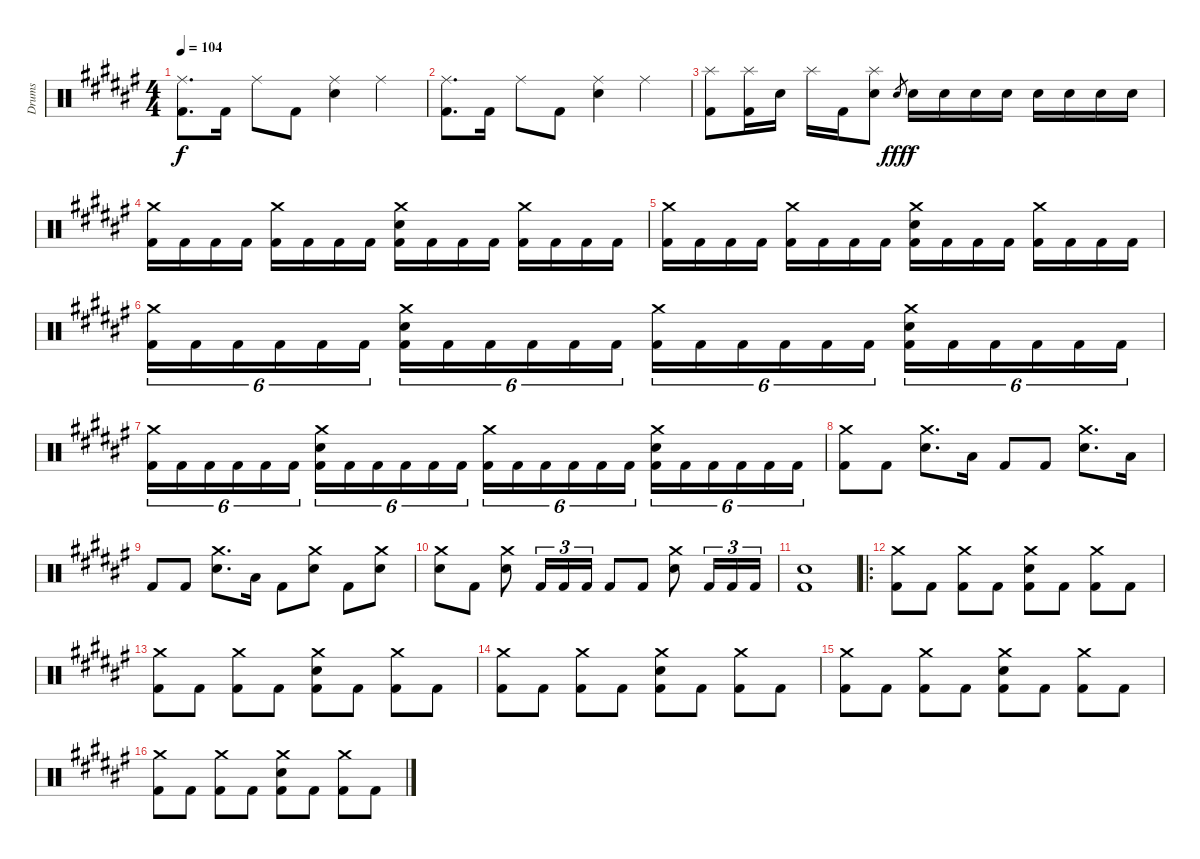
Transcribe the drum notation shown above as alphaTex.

\track ("Drums" "Drums") {instrument percussion}
\staff {score}
\articulation defaults
\ts (4 4)
\tempo 104
\clef neutral
\ks f#
("Ride (middle)" "Kick (hit) 2").8{d dy f} "Kick (hit) 2".16 "Ride (middle)".8 "Kick (hit) 2".8 ("Ride (middle)" "Snare (hit) 2").4 "Ride (middle)".4 |
("Ride (middle)" "Kick (hit) 2").8{d} "Kick (hit) 2".16 "Ride (middle)".8 "Kick (hit) 2".8 ("Ride (middle)" "Snare (hit) 2").4 "Ride (middle)".4 |
("Splash (hit)" "Kick (hit) 2").8 ("Splash (hit)" "Kick (hit) 2").16 "Snare (hit) 2".16 "Splash (hit)".16 "Kick (hit) 2".16 ("Splash (hit)" "Snare (hit) 2").8 "Snare (hit) 2".8{gr dy fff} "Snare (hit) 2".16{dy f} "Snare (hit) 2".16 "Snare (hit) 2".16 "Snare (hit) 2".16 "Snare (hit) 2".16 "Snare (hit) 2".16 "Snare (hit) 2".16 "Snare (hit) 2".16 |
("Crash medium (hit)" "Kick (hit) 2").16 "Kick (hit) 2".16 "Kick (hit) 2".16 "Kick (hit) 2".16 ("Crash medium (hit)" "Kick (hit) 2").16 "Kick (hit) 2".16 "Kick (hit) 2".16 "Kick (hit) 2".16 ("Crash medium (hit)" "Snare (hit) 2" "Kick (hit) 2").16 "Kick (hit) 2".16 "Kick (hit) 2".16 "Kick (hit) 2".16 ("Crash medium (hit)" "Kick (hit) 2").16 "Kick (hit) 2".16 "Kick (hit) 2".16 "Kick (hit) 2".16 |
("Crash medium (hit)" "Kick (hit) 2").16 "Kick (hit) 2".16 "Kick (hit) 2".16 "Kick (hit) 2".16 ("Crash medium (hit)" "Kick (hit) 2").16 "Kick (hit) 2".16 "Kick (hit) 2".16 "Kick (hit) 2".16 ("Crash medium (hit)" "Snare (hit) 2" "Kick (hit) 2").16 "Kick (hit) 2".16 "Kick (hit) 2".16 "Kick (hit) 2".16 ("Crash medium (hit)" "Kick (hit) 2").16 "Kick (hit) 2".16 "Kick (hit) 2".16 "Kick (hit) 2".16 |
("Crash medium (hit)" "Kick (hit) 2").16{tu (6 4)} "Kick (hit) 2".16{tu (6 4)} "Kick (hit) 2".16{tu (6 4)} "Kick (hit) 2".16{tu (6 4)} "Kick (hit) 2".16{tu (6 4)} "Kick (hit) 2".16{tu (6 4)} ("Crash medium (hit)" "Snare (hit) 2" "Kick (hit) 2").16{tu (6 4)} "Kick (hit) 2".16{tu (6 4)} "Kick (hit) 2".16{tu (6 4)} "Kick (hit) 2".16{tu (6 4)} "Kick (hit) 2".16{tu (6 4)} "Kick (hit) 2".16{tu (6 4)} ("Crash medium (hit)" "Kick (hit) 2").16{tu (6 4)} "Kick (hit) 2".16{tu (6 4)} "Kick (hit) 2".16{tu (6 4)} "Kick (hit) 2".16{tu (6 4)} "Kick (hit) 2".16{tu (6 4)} "Kick (hit) 2".16{tu (6 4)} ("Crash medium (hit)" "Snare (hit) 2" "Kick (hit) 2").16{tu (6 4)} "Kick (hit) 2".16{tu (6 4)} "Kick (hit) 2".16{tu (6 4)} "Kick (hit) 2".16{tu (6 4)} "Kick (hit) 2".16{tu (6 4)} "Kick (hit) 2".16{tu (6 4)} |
("Crash medium (hit)" "Kick (hit) 2").16{tu (6 4)} "Kick (hit) 2".16{tu (6 4)} "Kick (hit) 2".16{tu (6 4)} "Kick (hit) 2".16{tu (6 4)} "Kick (hit) 2".16{tu (6 4)} "Kick (hit) 2".16{tu (6 4)} ("Crash medium (hit)" "Snare (hit) 2" "Kick (hit) 2").16{tu (6 4)} "Kick (hit) 2".16{tu (6 4)} "Kick (hit) 2".16{tu (6 4)} "Kick (hit) 2".16{tu (6 4)} "Kick (hit) 2".16{tu (6 4)} "Kick (hit) 2".16{tu (6 4)} ("Crash medium (hit)" "Kick (hit) 2").16{tu (6 4)} "Kick (hit) 2".16{tu (6 4)} "Kick (hit) 2".16{tu (6 4)} "Kick (hit) 2".16{tu (6 4)} "Kick (hit) 2".16{tu (6 4)} "Kick (hit) 2".16{tu (6 4)} ("Crash medium (hit)" "Snare (hit) 2" "Kick (hit) 2").16{tu (6 4)} "Kick (hit) 2".16{tu (6 4)} "Kick (hit) 2".16{tu (6 4)} "Kick (hit) 2".16{tu (6 4)} "Kick (hit) 2".16{tu (6 4)} "Kick (hit) 2".16{tu (6 4)} |
("Crash medium (hit)" "Kick (hit) 2").8 "Kick (hit) 2".8 ("Crash medium (hit)" "Snare (hit) 2").8{d} "Low Floor Tom (hit)".16 "Kick (hit) 2".8 "Kick (hit) 2".8 ("Crash medium (hit)" "Snare (hit) 2").8{d} "Low Floor Tom (hit)".16 |
"Kick (hit) 2".8 "Kick (hit) 2".8 ("Crash medium (hit)" "Snare (hit) 2").8{d} "Low Floor Tom (hit)".16 "Kick (hit) 2".8 ("Crash medium (hit)" "Snare (hit) 2").8 "Kick (hit) 2".8 ("Crash medium (hit)" "Snare (hit) 2").8 |
("Crash medium (hit)" "Snare (hit) 2").8 "Kick (hit) 2".8 ("Crash medium (hit)" "Snare (hit) 2").8 "Kick (hit) 2".16{tu (3 2)} "Kick (hit) 2".16{tu (3 2)} "Kick (hit) 2".16{tu (3 2)} "Kick (hit) 2".8 "Kick (hit) 2".8 ("Crash medium (hit)" "Snare (hit) 2").8 "Kick (hit) 2".16{tu (3 2)} "Kick (hit) 2".16{tu (3 2)} "Kick (hit) 2".16{tu (3 2)} |
("Snare (hit) 2" "Kick (hit) 2").1 |
\ro
("Crash medium (hit)" "Kick (hit) 2").8 "Kick (hit) 2".8 ("Crash medium (hit)" "Kick (hit) 2").8 "Kick (hit) 2".8 ("Crash medium (hit)" "Snare (hit) 2" "Kick (hit) 2").8 "Kick (hit) 2".8 ("Crash medium (hit)" "Kick (hit) 2").8 "Kick (hit) 2".8 |
("Crash medium (hit)" "Kick (hit) 2").8 "Kick (hit) 2".8 ("Crash medium (hit)" "Kick (hit) 2").8 "Kick (hit) 2".8 ("Crash medium (hit)" "Snare (hit) 2" "Kick (hit) 2").8 "Kick (hit) 2".8 ("Crash medium (hit)" "Kick (hit) 2").8 "Kick (hit) 2".8 |
("Crash medium (hit)" "Kick (hit) 2").8 "Kick (hit) 2".8 ("Crash medium (hit)" "Kick (hit) 2").8 "Kick (hit) 2".8 ("Crash medium (hit)" "Snare (hit) 2" "Kick (hit) 2").8 "Kick (hit) 2".8 ("Crash medium (hit)" "Kick (hit) 2").8 "Kick (hit) 2".8 |
("Crash medium (hit)" "Kick (hit) 2").8 "Kick (hit) 2".8 ("Crash medium (hit)" "Kick (hit) 2").8 "Kick (hit) 2".8 ("Crash medium (hit)" "Snare (hit) 2" "Kick (hit) 2").8 "Kick (hit) 2".8 ("Crash medium (hit)" "Kick (hit) 2").8 "Kick (hit) 2".8 |
("Crash medium (hit)" "Kick (hit) 2").8 "Kick (hit) 2".8 ("Crash medium (hit)" "Kick (hit) 2").8 "Kick (hit) 2".8 ("Crash medium (hit)" "Snare (hit) 2" "Kick (hit) 2").8 "Kick (hit) 2".8 ("Crash medium (hit)" "Kick (hit) 2").8 "Kick (hit) 2".8
